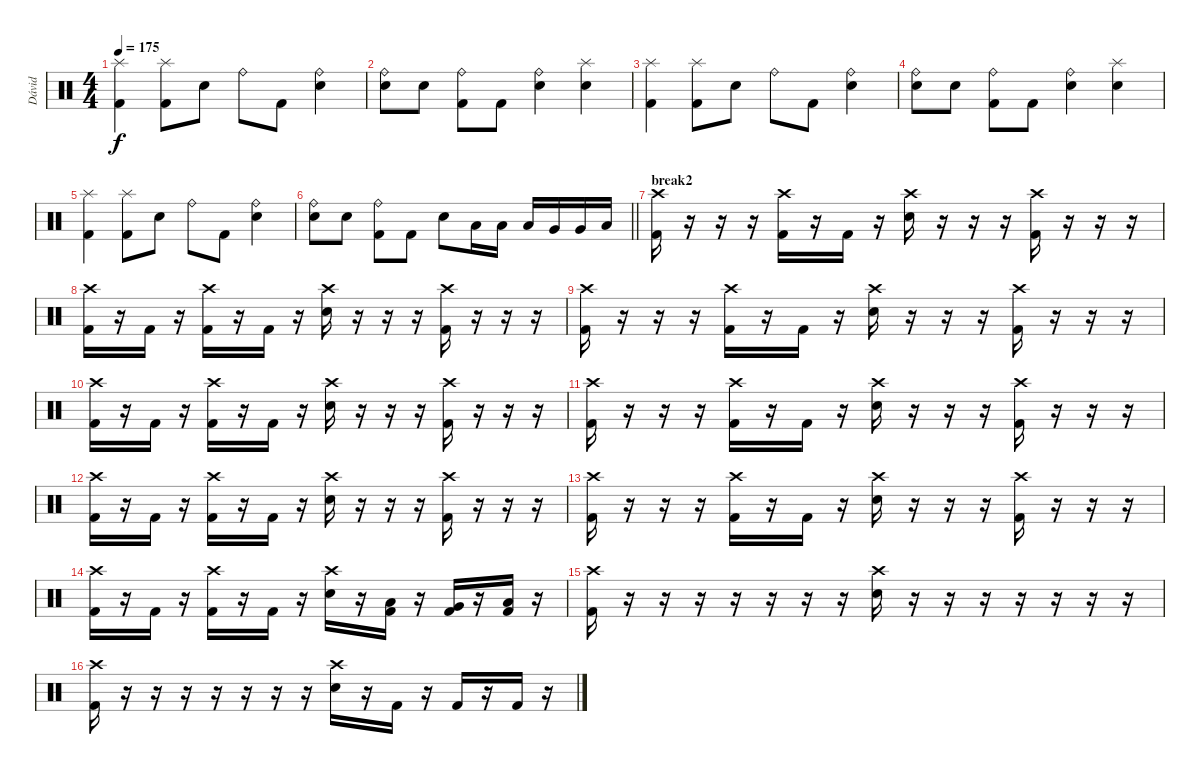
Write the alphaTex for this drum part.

\track ("Dávid" "Dávid") {instrument percussion}
\staff {score}
\articulation defaults
\ts (4 4)
\tempo 175
\clef neutral
\ks c
("Splash (hit)" "Kick (hit) 2").4{dy f} ("Splash (hit)" "Kick (hit) 2").8 "Electric Snare (hit)".8 "Ride (bell)".8 "Kick (hit) 2".8 ("Ride (bell)" "Electric Snare (hit)").4 |
("Ride (bell)" "Electric Snare (hit)").8 "Electric Snare (hit)".8 ("Ride (bell)" "Kick (hit) 2").8 "Kick (hit) 2".8 ("Ride (bell)" "Electric Snare (hit)").4 ("Splash (hit)" "Electric Snare (hit)").4 |
("Splash (hit)" "Kick (hit) 2").4 ("Splash (hit)" "Kick (hit) 2").8 "Electric Snare (hit)".8 "Ride (bell)".8 "Kick (hit) 2".8 ("Ride (bell)" "Electric Snare (hit)").4 |
("Ride (bell)" "Electric Snare (hit)").8 "Electric Snare (hit)".8 ("Ride (bell)" "Kick (hit) 2").8 "Kick (hit) 2".8 ("Ride (bell)" "Electric Snare (hit)").4 ("Splash (hit)" "Electric Snare (hit)").4 |
("Splash (hit)" "Kick (hit) 2").4 ("Splash (hit)" "Kick (hit) 2").8 "Electric Snare (hit)".8 "Ride (bell)".8 "Kick (hit) 2".8 ("Ride (bell)" "Electric Snare (hit)").4 |
\barLineRight lightlight
("Ride (bell)" "Electric Snare (hit)").8 "Electric Snare (hit)".8 ("Ride (bell)" "Kick (hit) 2").8 "Kick (hit) 2".8 "Electric Snare (hit)".8 "Low Tom (hit)".16 "Low Tom (hit)".16 "Low Tom (hit)".16 "Very Low Tom (hit)".16 "Very Low Tom (hit)".16 "Low Floor Tom (hit)".16 |
\section ("" "break2")
("Crash high (hit)" "Kick (hit) 2").16 r.16 r.16 r.16 ("Crash high (hit)" "Kick (hit) 2").16 r.16 "Kick (hit) 2".16 r.16 ("Crash high (hit)" "Electric Snare (hit)").16 r.16 r.16 r.16 ("Crash high (hit)" "Kick (hit) 2").16 r.16 r.16 r.16 |
("Crash high (hit)" "Kick (hit) 2").16 r.16 "Kick (hit) 2".16 r.16 ("Crash high (hit)" "Kick (hit) 2").16 r.16 "Kick (hit) 2".16 r.16 ("Crash high (hit)" "Electric Snare (hit)").16 r.16 r.16 r.16 ("Crash high (hit)" "Kick (hit) 2").16 r.16 r.16 r.16 |
("Crash high (hit)" "Kick (hit) 2").16 r.16 r.16 r.16 ("Crash high (hit)" "Kick (hit) 2").16 r.16 "Kick (hit) 2".16 r.16 ("Crash high (hit)" "Electric Snare (hit)").16 r.16 r.16 r.16 ("Crash high (hit)" "Kick (hit) 2").16 r.16 r.16 r.16 |
("Crash high (hit)" "Kick (hit) 2").16 r.16 "Kick (hit) 2".16 r.16 ("Crash high (hit)" "Kick (hit) 2").16 r.16 "Kick (hit) 2".16 r.16 ("Crash high (hit)" "Electric Snare (hit)").16 r.16 r.16 r.16 ("Crash high (hit)" "Kick (hit) 2").16 r.16 r.16 r.16 |
("Crash high (hit)" "Kick (hit) 2").16 r.16 r.16 r.16 ("Crash high (hit)" "Kick (hit) 2").16 r.16 "Kick (hit) 2".16 r.16 ("Crash high (hit)" "Electric Snare (hit)").16 r.16 r.16 r.16 ("Crash high (hit)" "Kick (hit) 2").16 r.16 r.16 r.16 |
("Crash high (hit)" "Kick (hit) 2").16 r.16 "Kick (hit) 2".16 r.16 ("Crash high (hit)" "Kick (hit) 2").16 r.16 "Kick (hit) 2".16 r.16 ("Crash high (hit)" "Electric Snare (hit)").16 r.16 r.16 r.16 ("Crash high (hit)" "Kick (hit) 2").16 r.16 r.16 r.16 |
("Crash high (hit)" "Kick (hit) 2").16 r.16 r.16 r.16 ("Crash high (hit)" "Kick (hit) 2").16 r.16 "Kick (hit) 2".16 r.16 ("Crash high (hit)" "Electric Snare (hit)").16 r.16 r.16 r.16 ("Crash high (hit)" "Kick (hit) 2").16 r.16 r.16 r.16 |
("Crash high (hit)" "Kick (hit) 2").16 r.16 "Kick (hit) 2".16 r.16 ("Crash high (hit)" "Kick (hit) 2").16 r.16 "Kick (hit) 2".16 r.16 ("Crash high (hit)" "Electric Snare (hit)").16 r.16 ("Low Tom (hit)" "Kick (hit) 2").16 r.16 ("Very Low Tom (hit)" "Kick (hit) 2").16 r.16 ("Low Floor Tom (hit)" "Kick (hit) 2").16 r.16 |
("Crash high (hit)" "Kick (hit) 2").16 r.16 r.16 r.16 r.16 r.16 r.16 r.16 ("Crash high (hit)" "Electric Snare (hit)").16 r.16 r.16 r.16 r.16 r.16 r.16 r.16 |
("Crash high (hit)" "Kick (hit) 2").16 r.16 r.16 r.16 r.16 r.16 r.16 r.16 ("Crash high (hit)" "Electric Snare (hit)").16 r.16 "Kick (hit) 2".16 r.16 "Kick (hit) 2".16 r.16 "Kick (hit) 2".16 r.16
